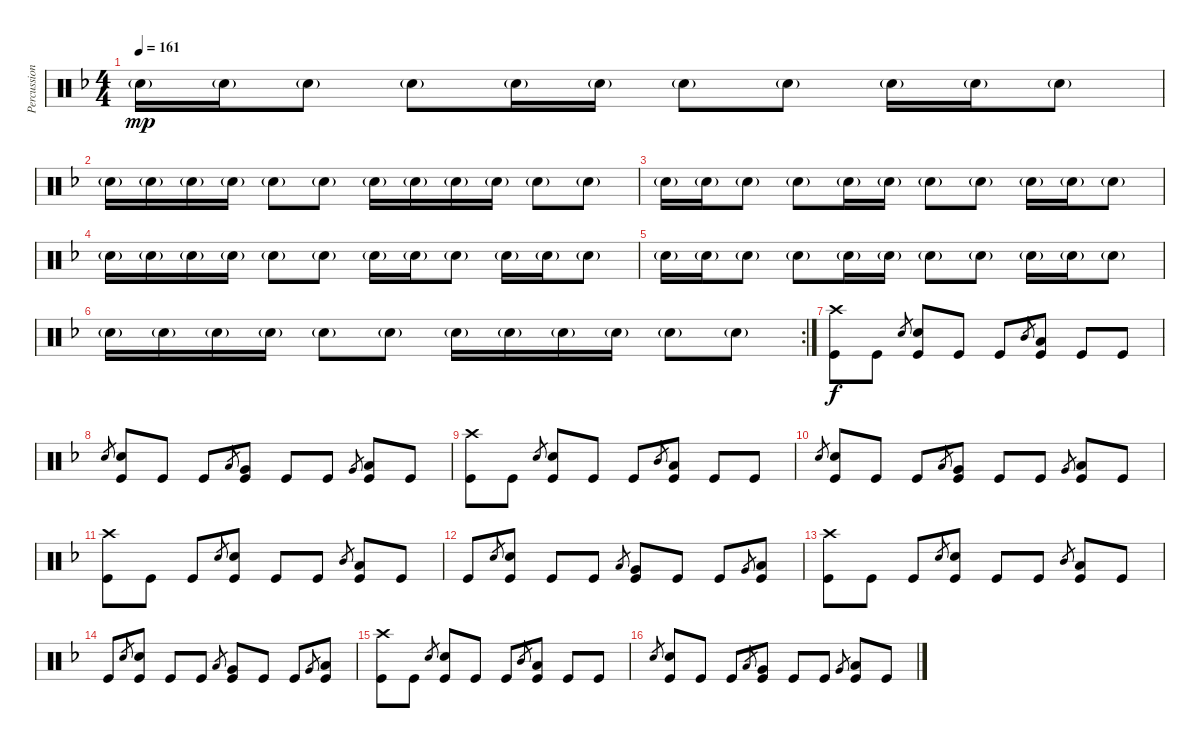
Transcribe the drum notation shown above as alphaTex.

\track ("Percussion" "Percussion") {instrument percussion}
\staff {score}
\articulation defaults
\ts (4 4)
\tempo 161
\clef neutral
\ks f "Electric Snare (hit)"{g}.16{dy mp} "Electric Snare (hit)"{g}.16 "Electric Snare (hit)"{g}.8 "Electric Snare (hit)"{g}.8 "Electric Snare (hit)"{g}.16 "Electric Snare (hit)"{g}.16 "Electric Snare (hit)"{g}.8 "Electric Snare (hit)"{g}.8 "Electric Snare (hit)"{g}.16 "Electric Snare (hit)"{g}.16 "Electric Snare (hit)"{g}.8
|
"Electric Snare (hit)"{g}.16 "Electric Snare (hit)"{g}.16 "Electric Snare (hit)"{g}.16 "Electric Snare (hit)"{g}.16 "Electric Snare (hit)"{g}.8 "Electric Snare (hit)"{g}.8 "Electric Snare (hit)"{g}.16 "Electric Snare (hit)"{g}.16 "Electric Snare (hit)"{g}.16 "Electric Snare (hit)"{g}.16 "Electric Snare (hit)"{g}.8 "Electric Snare (hit)"{g}.8 |
"Electric Snare (hit)"{g}.16 "Electric Snare (hit)"{g}.16 "Electric Snare (hit)"{g}.8 "Electric Snare (hit)"{g}.8 "Electric Snare (hit)"{g}.16 "Electric Snare (hit)"{g}.16 "Electric Snare (hit)"{g}.8 "Electric Snare (hit)"{g}.8 "Electric Snare (hit)"{g}.16 "Electric Snare (hit)"{g}.16 "Electric Snare (hit)"{g}.8 |
"Electric Snare (hit)"{g}.16 "Electric Snare (hit)"{g}.16 "Electric Snare (hit)"{g}.16 "Electric Snare (hit)"{g}.16 "Electric Snare (hit)"{g}.8 "Electric Snare (hit)"{g}.8 "Electric Snare (hit)"{g}.16 "Electric Snare (hit)"{g}.16 "Electric Snare (hit)"{g}.8 "Electric Snare (hit)"{g}.16 "Electric Snare (hit)"{g}.16 "Electric Snare (hit)"{g}.8 |
"Electric Snare (hit)"{g}.16 "Electric Snare (hit)"{g}.16 "Electric Snare (hit)"{g}.8 "Electric Snare (hit)"{g}.8 "Electric Snare (hit)"{g}.16 "Electric Snare (hit)"{g}.16 "Electric Snare (hit)"{g}.8 "Electric Snare (hit)"{g}.8 "Electric Snare (hit)"{g}.16 "Electric Snare (hit)"{g}.16 "Electric Snare (hit)"{g}.8 |
\rc 2 "Electric Snare (hit)"{g}.16 "Electric Snare (hit)"{g}.16 "Electric Snare (hit)"{g}.16 "Electric Snare (hit)"{g}.16 "Electric Snare (hit)"{g}.8 "Electric Snare (hit)"{g}.8 "Electric Snare (hit)"{g}.16 "Electric Snare (hit)"{g}.16 "Electric Snare (hit)"{g}.16 "Electric Snare (hit)"{g}.16 "Electric Snare (hit)"{g}.8 "Electric Snare (hit)"{g}.8
|
("Crash high (hit)" "Kick (hit)").8{dy f} "Kick (hit)".8 "Electric Snare (hit)".8{gr} ("Electric Snare (hit)" "Kick (hit)").8 "Kick (hit)".8 "Kick (hit)".8 "Mid Tom (hit)".8{gr} ("Low Tom (hit)" "Kick (hit)").8 "Kick (hit)".8 "Kick (hit)".8 |
"Electric Snare (hit)".8{gr} ("Electric Snare (hit)" "Kick (hit)").8 "Kick (hit)".8 "Kick (hit)".8 "Low Tom (hit)".8{gr} ("Very Low Tom (hit)" "Kick (hit)").8 "Kick (hit)".8 "Kick (hit)".8 "Very Low Tom (hit)".8{gr} ("Low Floor Tom (hit)" "Kick (hit)").8 "Kick (hit)".8 |
("Crash high (hit)" "Kick (hit)").8 "Kick (hit)".8 "Electric Snare (hit)".8{gr} ("Electric Snare (hit)" "Kick (hit)").8 "Kick (hit)".8 "Kick (hit)".8 "Mid Tom (hit)".8{gr} ("Low Tom (hit)" "Kick (hit)").8 "Kick (hit)".8 "Kick (hit)".8 |
"Electric Snare (hit)".8{gr} ("Electric Snare (hit)" "Kick (hit)").8 "Kick (hit)".8 "Kick (hit)".8 "Low Tom (hit)".8{gr} ("Very Low Tom (hit)" "Kick (hit)").8 "Kick (hit)".8 "Kick (hit)".8 "Very Low Tom (hit)".8{gr} ("Low Floor Tom (hit)" "Kick (hit)").8 "Kick (hit)".8 |
("Crash high (hit)" "Kick (hit)").8 "Kick (hit)".8 "Kick (hit)".8 "Electric Snare (hit)".8{gr} ("Electric Snare (hit)" "Kick (hit)").8 "Kick (hit)".8 "Kick (hit)".8 "Mid Tom (hit)".8{gr} ("Low Tom (hit)" "Kick (hit)").8 "Kick (hit)".8 |
"Kick (hit)".8 "Electric Snare (hit)".8{gr} ("Electric Snare (hit)" "Kick (hit)").8 "Kick (hit)".8 "Kick (hit)".8 "Low Tom (hit)".8{gr} ("Very Low Tom (hit)" "Kick (hit)").8 "Kick (hit)".8 "Kick (hit)".8 "Very Low Tom (hit)".8{gr} ("Low Floor Tom (hit)" "Kick (hit)").8 |
("Crash high (hit)" "Kick (hit)").8 "Kick (hit)".8 "Kick (hit)".8 "Electric Snare (hit)".8{gr} ("Electric Snare (hit)" "Kick (hit)").8 "Kick (hit)".8 "Kick (hit)".8 "Mid Tom (hit)".8{gr} ("Low Tom (hit)" "Kick (hit)").8 "Kick (hit)".8 |
"Kick (hit)".8 "Electric Snare (hit)".8{gr} ("Electric Snare (hit)" "Kick (hit)").8 "Kick (hit)".8 "Kick (hit)".8 "Low Tom (hit)".8{gr} ("Very Low Tom (hit)" "Kick (hit)").8 "Kick (hit)".8 "Kick (hit)".8 "Very Low Tom (hit)".8{gr} ("Low Floor Tom (hit)" "Kick (hit)").8 |
("Crash high (hit)" "Kick (hit)").8 "Kick (hit)".8 "Electric Snare (hit)".8{gr} ("Electric Snare (hit)" "Kick (hit)").8 "Kick (hit)".8 "Kick (hit)".8 "Mid Tom (hit)".8{gr} ("Low Tom (hit)" "Kick (hit)").8 "Kick (hit)".8 "Kick (hit)".8 |
"Electric Snare (hit)".8{gr} ("Electric Snare (hit)" "Kick (hit)").8 "Kick (hit)".8 "Kick (hit)".8 "Low Tom (hit)".8{gr} ("Very Low Tom (hit)" "Kick (hit)").8 "Kick (hit)".8 "Kick (hit)".8 "Very Low Tom (hit)".8{gr} ("Low Floor Tom (hit)" "Kick (hit)").8 "Kick (hit)".8
